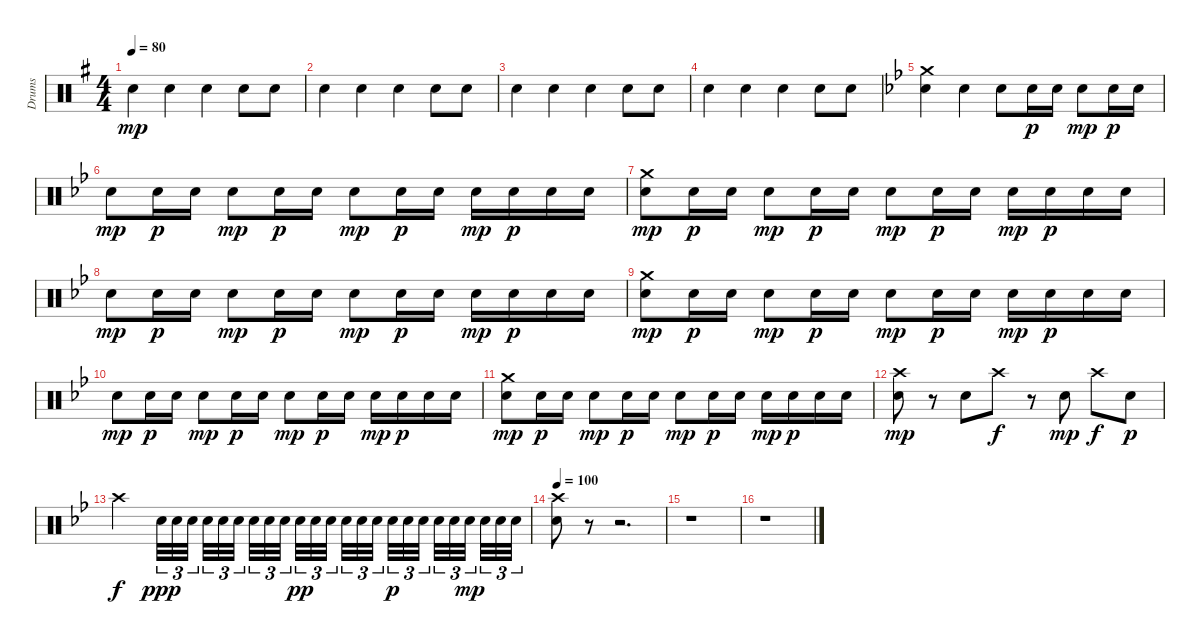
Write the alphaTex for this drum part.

\track ("Drums" "Drums") {instrument percussion}
\staff {score}
\articulation defaults
\ts (4 4)
\tempo 80
\clef neutral
\ks eminor "Snare (hit) 2".4{dy mp} "Snare (hit) 2".4 "Snare (hit) 2".4 "Snare (hit) 2".8 "Snare (hit) 2".8
|
"Snare (hit) 2".4 "Snare (hit) 2".4 "Snare (hit) 2".4 "Snare (hit) 2".8 "Snare (hit) 2".8 |
"Snare (hit) 2".4 "Snare (hit) 2".4 "Snare (hit) 2".4 "Snare (hit) 2".8 "Snare (hit) 2".8 |
"Snare (hit) 2".4 "Snare (hit) 2".4 "Snare (hit) 2".4 "Snare (hit) 2".8 "Snare (hit) 2".8 |
\ks gminor
("Crash medium (hit)" "Snare (hit) 2").4 "Snare (hit) 2".4 "Snare (hit) 2".8 "Snare (hit) 2".16{dy p} "Snare (hit) 2".16 "Snare (hit) 2".8{dy mp} "Snare (hit) 2".16{dy p} "Snare (hit) 2".16 |
"Snare (hit) 2".8{dy mp} "Snare (hit) 2".16{dy p} "Snare (hit) 2".16 "Snare (hit) 2".8{dy mp} "Snare (hit) 2".16{dy p} "Snare (hit) 2".16 "Snare (hit) 2".8{dy mp} "Snare (hit) 2".16{dy p} "Snare (hit) 2".16 "Snare (hit) 2".16{dy mp} "Snare (hit) 2".16{dy p} "Snare (hit) 2".16 "Snare (hit) 2".16 |
("Crash medium (hit)" "Snare (hit) 2").8{dy mp} "Snare (hit) 2".16{dy p} "Snare (hit) 2".16 "Snare (hit) 2".8{dy mp} "Snare (hit) 2".16{dy p} "Snare (hit) 2".16 "Snare (hit) 2".8{dy mp} "Snare (hit) 2".16{dy p} "Snare (hit) 2".16 "Snare (hit) 2".16{dy mp} "Snare (hit) 2".16{dy p} "Snare (hit) 2".16 "Snare (hit) 2".16 |
"Snare (hit) 2".8{dy mp} "Snare (hit) 2".16{dy p} "Snare (hit) 2".16 "Snare (hit) 2".8{dy mp} "Snare (hit) 2".16{dy p} "Snare (hit) 2".16 "Snare (hit) 2".8{dy mp} "Snare (hit) 2".16{dy p} "Snare (hit) 2".16 "Snare (hit) 2".16{dy mp} "Snare (hit) 2".16{dy p} "Snare (hit) 2".16 "Snare (hit) 2".16 |
("Crash medium (hit)" "Snare (hit) 2").8{dy mp} "Snare (hit) 2".16{dy p} "Snare (hit) 2".16 "Snare (hit) 2".8{dy mp} "Snare (hit) 2".16{dy p} "Snare (hit) 2".16 "Snare (hit) 2".8{dy mp} "Snare (hit) 2".16{dy p} "Snare (hit) 2".16 "Snare (hit) 2".16{dy mp} "Snare (hit) 2".16{dy p} "Snare (hit) 2".16 "Snare (hit) 2".16 |
"Snare (hit) 2".8{dy mp} "Snare (hit) 2".16{dy p} "Snare (hit) 2".16 "Snare (hit) 2".8{dy mp} "Snare (hit) 2".16{dy p} "Snare (hit) 2".16 "Snare (hit) 2".8{dy mp} "Snare (hit) 2".16{dy p} "Snare (hit) 2".16 "Snare (hit) 2".16{dy mp} "Snare (hit) 2".16{dy p} "Snare (hit) 2".16 "Snare (hit) 2".16 |
("Crash medium (hit)" "Snare (hit) 2").8{dy mp} "Snare (hit) 2".16{dy p} "Snare (hit) 2".16 "Snare (hit) 2".8{dy mp} "Snare (hit) 2".16{dy p} "Snare (hit) 2".16 "Snare (hit) 2".8{dy mp} "Snare (hit) 2".16{dy p} "Snare (hit) 2".16 "Snare (hit) 2".16{dy mp} "Snare (hit) 2".16{dy p} "Snare (hit) 2".16 "Snare (hit) 2".16 |
("Crash high (hit)" "Snare (hit) 2").8{dy mp} r.8 "Snare (hit) 2".8 "Crash high (hit)".8{dy f} r.8 "Snare (hit) 2".8{dy mp} "Crash high (hit)".8{dy f} "Snare (hit) 2".8{dy p} |
"Crash high (hit)".2{dy f} "Snare (hit) 2".32{tu (3 2) dy ppp} "Snare (hit) 2".32{tu (3 2)} "Snare (hit) 2".32{tu (3 2) beam splitsecondary} "Snare (hit) 2".32{tu (3 2)} "Snare (hit) 2".32{tu (3 2)} "Snare (hit) 2".32{tu (3 2) beam splitsecondary} "Snare (hit) 2".32{tu (3 2)} "Snare (hit) 2".32{tu (3 2)} "Snare (hit) 2".32{tu (3 2) beam splitsecondary} "Snare (hit) 2".32{tu (3 2) dy pp} "Snare (hit) 2".32{tu (3 2)} "Snare (hit) 2".32{tu (3 2)} "Snare (hit) 2".32{tu (3 2)} "Snare (hit) 2".32{tu (3 2)} "Snare (hit) 2".32{tu (3 2) beam splitsecondary} "Snare (hit) 2".32{tu (3 2) dy p} "Snare (hit) 2".32{tu (3 2)} "Snare (hit) 2".32{tu (3 2) beam splitsecondary} "Snare (hit) 2".32{tu (3 2)} "Snare (hit) 2".32{tu (3 2)} "Snare (hit) 2".32{tu (3 2) dy mp beam splitsecondary} "Snare (hit) 2".32{tu (3 2)} "Snare (hit) 2".32{tu (3 2)} "Snare (hit) 2".32{tu (3 2)} |
\tempo 100
("Crash high (hit)" "Snare (hit) 2").8 r.8 r.2{d} |
r.1 |
r.1
